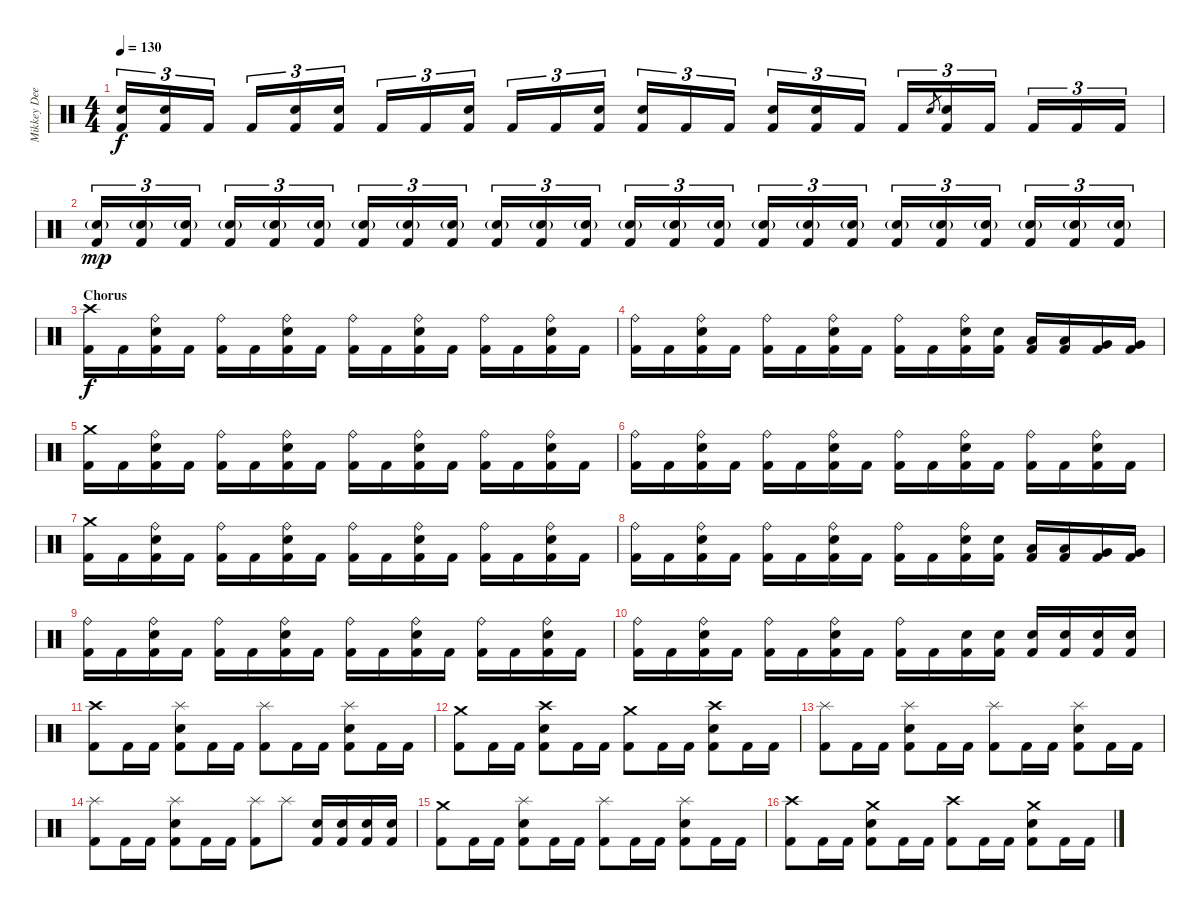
\track ("Mikkey Dee" "Mikkey Dee") {instrument percussion}
\staff {score}
\articulation defaults
\ts (4 4)
\tempo 130
\clef neutral
\ks c
("Snare (hit) 2" "Kick (hit) 2").16{tu (3 2) dy f} ("Snare (hit) 2" "Kick (hit) 2").16{tu (3 2)} "Kick (hit) 2".16{tu (3 2)} "Kick (hit) 2".16{tu (3 2)} ("Snare (hit) 2" "Kick (hit) 2").16{tu (3 2)} ("Snare (hit) 2" "Kick (hit) 2").16{tu (3 2)} "Kick (hit) 2".16{tu (3 2)} "Kick (hit) 2".16{tu (3 2)} ("Snare (hit) 2" "Kick (hit) 2").16{tu (3 2)} "Kick (hit) 2".16{tu (3 2)} "Kick (hit) 2".16{tu (3 2)} ("Snare (hit) 2" "Kick (hit) 2").16{tu (3 2)} ("Snare (hit) 2" "Kick (hit) 2").16{tu (3 2)} "Kick (hit) 2".16{tu (3 2)} "Kick (hit) 2".16{tu (3 2)} ("Snare (hit) 2" "Kick (hit) 2").16{tu (3 2)} ("Snare (hit) 2" "Kick (hit) 2").16{tu (3 2)} "Kick (hit) 2".16{tu (3 2)} "Kick (hit) 2".16{tu (3 2)} "Snare (hit) 2".8{gr} ("Snare (hit) 2" "Kick (hit) 2").16{tu (3 2)} "Kick (hit) 2".16{tu (3 2)} "Kick (hit) 2".16{tu (3 2)} "Kick (hit) 2".16{tu (3 2)} "Kick (hit) 2".16{tu (3 2)} |
("Snare (hit) 2"{g} "Kick (hit) 2").16{tu (3 2) dy mp} ("Snare (hit) 2"{g} "Kick (hit) 2").16{tu (3 2)} ("Snare (hit) 2"{g} "Kick (hit) 2").16{tu (3 2)} ("Snare (hit) 2"{g} "Kick (hit) 2").16{tu (3 2)} ("Snare (hit) 2"{g} "Kick (hit) 2").16{tu (3 2)} ("Snare (hit) 2"{g} "Kick (hit) 2").16{tu (3 2)} ("Snare (hit) 2"{g} "Kick (hit) 2").16{tu (3 2)} ("Snare (hit) 2"{g} "Kick (hit) 2").16{tu (3 2)} ("Snare (hit) 2"{g} "Kick (hit) 2").16{tu (3 2)} ("Snare (hit) 2"{g} "Kick (hit) 2").16{tu (3 2)} ("Snare (hit) 2"{g} "Kick (hit) 2").16{tu (3 2)} ("Snare (hit) 2"{g} "Kick (hit) 2").16{tu (3 2)} ("Snare (hit) 2"{g} "Kick (hit) 2").16{tu (3 2)} ("Snare (hit) 2"{g} "Kick (hit) 2").16{tu (3 2)} ("Snare (hit) 2"{g} "Kick (hit) 2").16{tu (3 2)} ("Snare (hit) 2"{g} "Kick (hit) 2").16{tu (3 2)} ("Snare (hit) 2"{g} "Kick (hit) 2").16{tu (3 2)} ("Snare (hit) 2"{g} "Kick (hit) 2").16{tu (3 2)} ("Snare (hit) 2"{g} "Kick (hit) 2").16{tu (3 2)} ("Snare (hit) 2"{g} "Kick (hit) 2").16{tu (3 2)} ("Snare (hit) 2"{g} "Kick (hit) 2").16{tu (3 2)} ("Snare (hit) 2"{g} "Kick (hit) 2").16{tu (3 2)} ("Snare (hit) 2"{g} "Kick (hit) 2").16{tu (3 2)} ("Snare (hit) 2"{g} "Kick (hit) 2").16{tu (3 2)} |
\section ("" "Chorus")
("Crash high (hit)" "Kick (hit) 2").16{dy f} "Kick (hit) 2".16 ("Ride (bell)" "Snare (hit) 2" "Kick (hit) 2").16 "Kick (hit) 2".16 ("Ride (bell)" "Kick (hit) 2").16 "Kick (hit) 2".16 ("Ride (bell)" "Snare (hit) 2" "Kick (hit) 2").16 "Kick (hit) 2".16 ("Ride (bell)" "Kick (hit) 2").16 "Kick (hit) 2".16 ("Ride (bell)" "Snare (hit) 2" "Kick (hit) 2").16 "Kick (hit) 2".16 ("Ride (bell)" "Kick (hit) 2").16 "Kick (hit) 2".16 ("Ride (bell)" "Snare (hit) 2" "Kick (hit) 2").16 "Kick (hit) 2".16 |
("Ride (bell)" "Kick (hit) 2").16 "Kick (hit) 2".16 ("Ride (bell)" "Snare (hit) 2" "Kick (hit) 2").16 "Kick (hit) 2".16 ("Ride (bell)" "Kick (hit) 2").16 "Kick (hit) 2".16 ("Ride (bell)" "Snare (hit) 2" "Kick (hit) 2").16 "Kick (hit) 2".16 ("Ride (bell)" "Kick (hit) 2").16 "Kick (hit) 2".16 ("Ride (bell)" "Snare (hit) 2" "Kick (hit) 2").16 ("Snare (hit) 2" "Kick (hit) 2").16 ("Low Tom (hit)" "Kick (hit) 2").16 ("Low Tom (hit)" "Kick (hit) 2").16 ("Very Low Tom (hit)" "Kick (hit) 2").16 ("Very Low Tom (hit)" "Kick (hit) 2").16 |
("Crash medium (hit)" "Kick (hit) 2").16 "Kick (hit) 2".16 ("Ride (bell)" "Snare (hit) 2" "Kick (hit) 2").16 "Kick (hit) 2".16 ("Ride (bell)" "Kick (hit) 2").16 "Kick (hit) 2".16 ("Ride (bell)" "Snare (hit) 2" "Kick (hit) 2").16 "Kick (hit) 2".16 ("Ride (bell)" "Kick (hit) 2").16 "Kick (hit) 2".16 ("Ride (bell)" "Snare (hit) 2" "Kick (hit) 2").16 "Kick (hit) 2".16 ("Ride (bell)" "Kick (hit) 2").16 "Kick (hit) 2".16 ("Ride (bell)" "Snare (hit) 2" "Kick (hit) 2").16 "Kick (hit) 2".16 |
("Ride (bell)" "Kick (hit) 2").16 "Kick (hit) 2".16 ("Ride (bell)" "Snare (hit) 2" "Kick (hit) 2").16 "Kick (hit) 2".16 ("Ride (bell)" "Kick (hit) 2").16 "Kick (hit) 2".16 ("Ride (bell)" "Snare (hit) 2" "Kick (hit) 2").16 "Kick (hit) 2".16 ("Ride (bell)" "Kick (hit) 2").16 "Kick (hit) 2".16 ("Ride (bell)" "Snare (hit) 2" "Kick (hit) 2").16 "Kick (hit) 2".16 ("Ride (bell)" "Kick (hit) 2").16 "Kick (hit) 2".16 ("Ride (bell)" "Snare (hit) 2" "Kick (hit) 2").16 "Kick (hit) 2".16 |
("Crash medium (hit)" "Kick (hit) 2").16 "Kick (hit) 2".16 ("Ride (bell)" "Snare (hit) 2" "Kick (hit) 2").16 "Kick (hit) 2".16 ("Ride (bell)" "Kick (hit) 2").16 "Kick (hit) 2".16 ("Ride (bell)" "Snare (hit) 2" "Kick (hit) 2").16 "Kick (hit) 2".16 ("Ride (bell)" "Kick (hit) 2").16 "Kick (hit) 2".16 ("Ride (bell)" "Snare (hit) 2" "Kick (hit) 2").16 "Kick (hit) 2".16 ("Ride (bell)" "Kick (hit) 2").16 "Kick (hit) 2".16 ("Ride (bell)" "Snare (hit) 2" "Kick (hit) 2").16 "Kick (hit) 2".16 |
("Ride (bell)" "Kick (hit) 2").16 "Kick (hit) 2".16 ("Ride (bell)" "Snare (hit) 2" "Kick (hit) 2").16 "Kick (hit) 2".16 ("Ride (bell)" "Kick (hit) 2").16 "Kick (hit) 2".16 ("Ride (bell)" "Snare (hit) 2" "Kick (hit) 2").16 "Kick (hit) 2".16 ("Ride (bell)" "Kick (hit) 2").16 "Kick (hit) 2".16 ("Ride (bell)" "Snare (hit) 2" "Kick (hit) 2").16 ("Snare (hit) 2" "Kick (hit) 2").16 ("Low Tom (hit)" "Kick (hit) 2").16 ("Low Tom (hit)" "Kick (hit) 2").16 ("Very Low Tom (hit)" "Kick (hit) 2").16 ("Very Low Tom (hit)" "Kick (hit) 2").16 |
("Ride (bell)" "Kick (hit) 2").16 "Kick (hit) 2".16 ("Ride (bell)" "Snare (hit) 2" "Kick (hit) 2").16 "Kick (hit) 2".16 ("Ride (bell)" "Kick (hit) 2").16 "Kick (hit) 2".16 ("Ride (bell)" "Snare (hit) 2" "Kick (hit) 2").16 "Kick (hit) 2".16 ("Ride (bell)" "Kick (hit) 2").16 "Kick (hit) 2".16 ("Ride (bell)" "Snare (hit) 2" "Kick (hit) 2").16 "Kick (hit) 2".16 ("Ride (bell)" "Kick (hit) 2").16 "Kick (hit) 2".16 ("Ride (bell)" "Snare (hit) 2" "Kick (hit) 2").16 "Kick (hit) 2".16 |
("Ride (bell)" "Kick (hit) 2").16 "Kick (hit) 2".16 ("Ride (bell)" "Snare (hit) 2" "Kick (hit) 2").16 "Kick (hit) 2".16 ("Ride (bell)" "Kick (hit) 2").16 "Kick (hit) 2".16 ("Ride (bell)" "Snare (hit) 2" "Kick (hit) 2").16 "Kick (hit) 2".16 ("Ride (bell)" "Kick (hit) 2").16 "Kick (hit) 2".16 ("Snare (hit) 2" "Kick (hit) 2").16 ("Snare (hit) 2" "Kick (hit) 2").16 ("Snare (hit) 2" "Kick (hit) 2").16 ("Snare (hit) 2" "Kick (hit) 2").16 ("Snare (hit) 2" "Kick (hit) 2").16 ("Snare (hit) 2" "Kick (hit) 2").16 |
("Crash high (hit)" "Kick (hit) 2").8 "Kick (hit) 2".16 "Kick (hit) 2".16 ("Splash (hit)" "Snare (hit) 2" "Kick (hit) 2").8 "Kick (hit) 2".16 "Kick (hit) 2".16 ("Splash (hit)" "Kick (hit) 2").8 "Kick (hit) 2".16 "Kick (hit) 2".16 ("Splash (hit)" "Snare (hit) 2" "Kick (hit) 2").8 "Kick (hit) 2".16 "Kick (hit) 2".16 |
("Crash medium (hit)" "Kick (hit) 2").8 "Kick (hit) 2".16 "Kick (hit) 2".16 ("Crash high (hit)" "Snare (hit) 2" "Kick (hit) 2").8 "Kick (hit) 2".16 "Kick (hit) 2".16 ("Crash medium (hit)" "Kick (hit) 2").8 "Kick (hit) 2".16 "Kick (hit) 2".16 ("Crash high (hit)" "Snare (hit) 2" "Kick (hit) 2").8 "Kick (hit) 2".16 "Kick (hit) 2".16 |
("Splash (hit)" "Kick (hit) 2").8 "Kick (hit) 2".16 "Kick (hit) 2".16 ("Splash (hit)" "Snare (hit) 2" "Kick (hit) 2").8 "Kick (hit) 2".16 "Kick (hit) 2".16 ("Splash (hit)" "Kick (hit) 2").8 "Kick (hit) 2".16 "Kick (hit) 2".16 ("Splash (hit)" "Snare (hit) 2" "Kick (hit) 2").8 "Kick (hit) 2".16 "Kick (hit) 2".16 |
("Splash (hit)" "Kick (hit) 2").8 "Kick (hit) 2".16 "Kick (hit) 2".16 ("Splash (hit)" "Snare (hit) 2" "Kick (hit) 2").8 "Kick (hit) 2".16 "Kick (hit) 2".16 ("Splash (hit)" "Kick (hit) 2").8 "Splash (hit)".8 ("Snare (hit) 2" "Kick (hit) 2").16 ("Snare (hit) 2" "Kick (hit) 2").16 ("Snare (hit) 2" "Kick (hit) 2").16 ("Snare (hit) 2" "Kick (hit) 2").16 |
("Crash medium (hit)" "Kick (hit) 2").8 "Kick (hit) 2".16 "Kick (hit) 2".16 ("Splash (hit)" "Snare (hit) 2" "Kick (hit) 2").8 "Kick (hit) 2".16 "Kick (hit) 2".16 ("Splash (hit)" "Kick (hit) 2").8 "Kick (hit) 2".16 "Kick (hit) 2".16 ("Splash (hit)" "Snare (hit) 2" "Kick (hit) 2").8 "Kick (hit) 2".16 "Kick (hit) 2".16 |
("Crash high (hit)" "Kick (hit) 2").8 "Kick (hit) 2".16 "Kick (hit) 2".16 ("Crash medium (hit)" "Snare (hit) 2" "Kick (hit) 2").8 "Kick (hit) 2".16 "Kick (hit) 2".16 ("Crash high (hit)" "Kick (hit) 2").8 "Kick (hit) 2".16 "Kick (hit) 2".16 ("Crash medium (hit)" "Snare (hit) 2" "Kick (hit) 2").8 "Kick (hit) 2".16 "Kick (hit) 2".16
